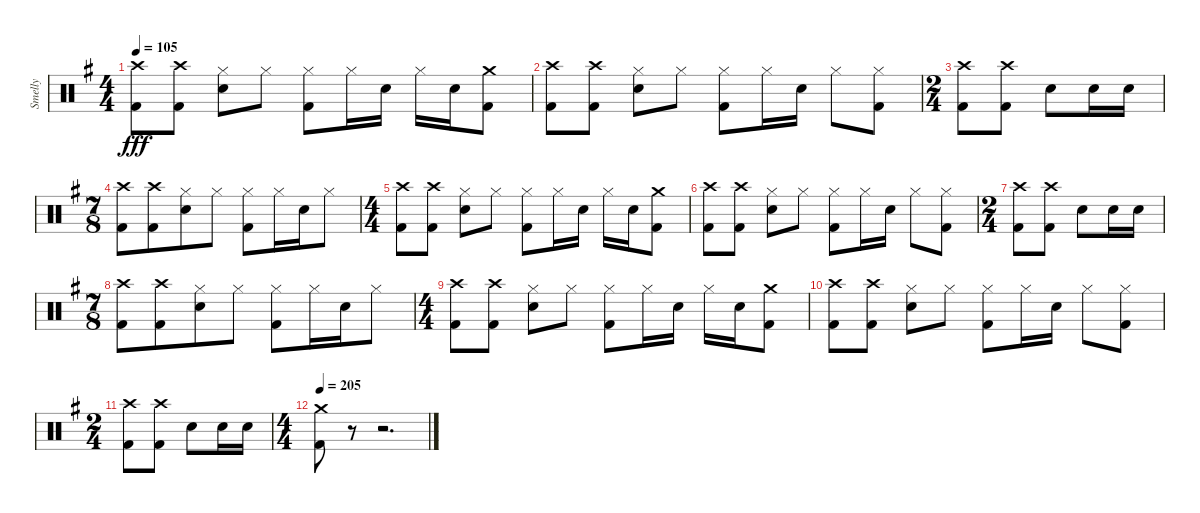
\track ("Smelly" "Smelly") {instrument percussion}
\staff {score}
\articulation defaults
\ts (4 4)
\tempo 105
\clef neutral
\ks eminor
("Crash high (hit)" "Kick (hit) 2").8{dy fff} ("Crash high (hit)" "Kick (hit) 2").8 ("Hi-Hat (closed)" "Electric Snare (hit)").8 "Hi-Hat (closed)".8 ("Hi-Hat (closed)" "Kick (hit) 2").8 "Hi-Hat (closed)".16 "Electric Snare (hit)".16 "Hi-Hat (closed)".16 "Electric Snare (hit)".16 ("Crash medium (hit)" "Kick (hit) 2").8 |
("Crash high (hit)" "Kick (hit) 2").8 ("Crash high (hit)" "Kick (hit) 2").8 ("Hi-Hat (closed)" "Electric Snare (hit)").8 "Hi-Hat (closed)".8 ("Hi-Hat (closed)" "Kick (hit) 2").8 "Hi-Hat (closed)".16 "Electric Snare (hit)".16 "Hi-Hat (closed)".8 ("Hi-Hat (closed)" "Kick (hit) 2").8 |
\ts (2 4)
("Crash high (hit)" "Kick (hit) 2").8 ("Crash high (hit)" "Kick (hit) 2").8 "Electric Snare (hit)".8 "Electric Snare (hit)".16 "Electric Snare (hit)".16 |
\ts (7 8)
("Crash high (hit)" "Kick (hit) 2").8 ("Crash high (hit)" "Kick (hit) 2").8 ("Hi-Hat (closed)" "Electric Snare (hit)").8 "Hi-Hat (closed)".8 ("Hi-Hat (closed)" "Kick (hit) 2").8 "Hi-Hat (closed)".16 "Electric Snare (hit)".16 "Hi-Hat (closed)".8 |
\ts (4 4)
("Crash high (hit)" "Kick (hit) 2").8 ("Crash high (hit)" "Kick (hit) 2").8 ("Hi-Hat (closed)" "Electric Snare (hit)").8 "Hi-Hat (closed)".8 ("Hi-Hat (closed)" "Kick (hit) 2").8 "Hi-Hat (closed)".16 "Electric Snare (hit)".16 "Hi-Hat (closed)".16 "Electric Snare (hit)".16 ("Crash medium (hit)" "Kick (hit) 2").8 |
("Crash high (hit)" "Kick (hit) 2").8 ("Crash high (hit)" "Kick (hit) 2").8 ("Hi-Hat (closed)" "Electric Snare (hit)").8 "Hi-Hat (closed)".8 ("Hi-Hat (closed)" "Kick (hit) 2").8 "Hi-Hat (closed)".16 "Electric Snare (hit)".16 "Hi-Hat (closed)".8 ("Hi-Hat (closed)" "Kick (hit) 2").8 |
\ts (2 4)
("Crash high (hit)" "Kick (hit) 2").8 ("Crash high (hit)" "Kick (hit) 2").8 "Electric Snare (hit)".8 "Electric Snare (hit)".16 "Electric Snare (hit)".16 |
\ts (7 8)
("Crash high (hit)" "Kick (hit) 2").8 ("Crash high (hit)" "Kick (hit) 2").8 ("Hi-Hat (closed)" "Electric Snare (hit)").8 "Hi-Hat (closed)".8 ("Hi-Hat (closed)" "Kick (hit) 2").8 "Hi-Hat (closed)".16 "Electric Snare (hit)".16 "Hi-Hat (closed)".8 |
\ts (4 4)
("Crash high (hit)" "Kick (hit) 2").8 ("Crash high (hit)" "Kick (hit) 2").8 ("Hi-Hat (closed)" "Electric Snare (hit)").8 "Hi-Hat (closed)".8 ("Hi-Hat (closed)" "Kick (hit) 2").8 "Hi-Hat (closed)".16 "Electric Snare (hit)".16 "Hi-Hat (closed)".16 "Electric Snare (hit)".16 ("Crash medium (hit)" "Kick (hit) 2").8 |
("Crash high (hit)" "Kick (hit) 2").8 ("Crash high (hit)" "Kick (hit) 2").8 ("Hi-Hat (closed)" "Electric Snare (hit)").8 "Hi-Hat (closed)".8 ("Hi-Hat (closed)" "Kick (hit) 2").8 "Hi-Hat (closed)".16 "Electric Snare (hit)".16 "Hi-Hat (closed)".8 ("Hi-Hat (closed)" "Kick (hit) 2").8 |
\ts (2 4)
("Crash high (hit)" "Kick (hit) 2").8 ("Crash high (hit)" "Kick (hit) 2").8 "Electric Snare (hit)".8 "Electric Snare (hit)".16 "Electric Snare (hit)".16 |
\ts (4 4)
\tempo 205
("Crash medium (hit)" "Kick (hit) 2").8 r.8{volume 0} r.2{d}
